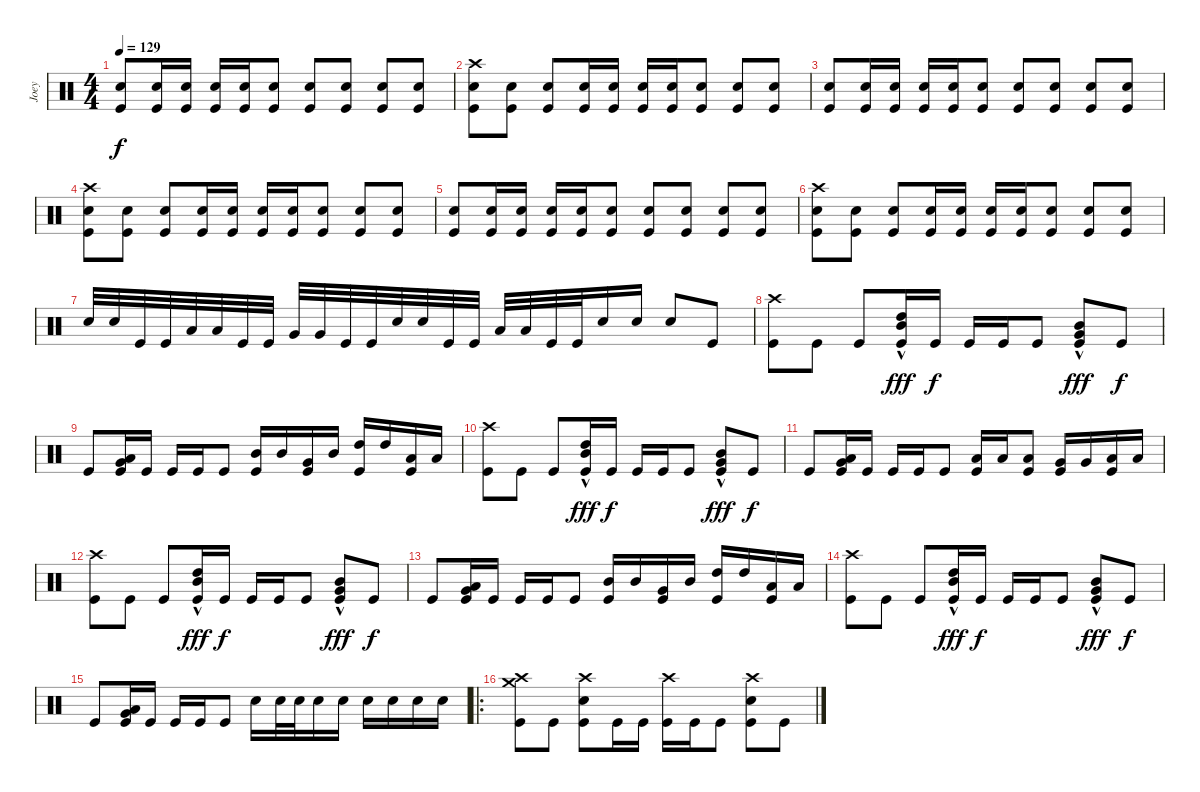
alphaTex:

\track ("Joey" "Joey") {instrument percussion}
\staff {score}
\articulation defaults
\ts (4 4)
\tempo 129
\clef neutral
\ks c
("Snare (hit) 2" "Kick (hit)").8{dy f} ("Snare (hit) 2" "Kick (hit)").16 ("Snare (hit) 2" "Kick (hit)").16 ("Snare (hit) 2" "Kick (hit)").16 ("Snare (hit) 2" "Kick (hit)").16 ("Snare (hit) 2" "Kick (hit)").8 ("Snare (hit) 2" "Kick (hit)").8 ("Snare (hit) 2" "Kick (hit)").8 ("Snare (hit) 2" "Kick (hit)").8 ("Snare (hit) 2" "Kick (hit)").8 |
("Snare (hit) 2" "Kick (hit)" "Crash high (hit)").8 ("Snare (hit) 2" "Kick (hit)").8 ("Snare (hit) 2" "Kick (hit)").8 ("Snare (hit) 2" "Kick (hit)").16 ("Snare (hit) 2" "Kick (hit)").16 ("Snare (hit) 2" "Kick (hit)").16 ("Snare (hit) 2" "Kick (hit)").16 ("Snare (hit) 2" "Kick (hit)").8 ("Snare (hit) 2" "Kick (hit)").8 ("Snare (hit) 2" "Kick (hit)").8 |
("Snare (hit) 2" "Kick (hit)").8 ("Snare (hit) 2" "Kick (hit)").16 ("Snare (hit) 2" "Kick (hit)").16 ("Snare (hit) 2" "Kick (hit)").16 ("Snare (hit) 2" "Kick (hit)").16 ("Snare (hit) 2" "Kick (hit)").8 ("Snare (hit) 2" "Kick (hit)").8 ("Snare (hit) 2" "Kick (hit)").8 ("Snare (hit) 2" "Kick (hit)").8 ("Snare (hit) 2" "Kick (hit)").8 |
("Snare (hit) 2" "Kick (hit)" "Crash high (hit)").8 ("Snare (hit) 2" "Kick (hit)").8 ("Snare (hit) 2" "Kick (hit)").8 ("Snare (hit) 2" "Kick (hit)").16 ("Snare (hit) 2" "Kick (hit)").16 ("Snare (hit) 2" "Kick (hit)").16 ("Snare (hit) 2" "Kick (hit)").16 ("Snare (hit) 2" "Kick (hit)").8 ("Snare (hit) 2" "Kick (hit)").8 ("Snare (hit) 2" "Kick (hit)").8 |
("Snare (hit) 2" "Kick (hit)").8 ("Snare (hit) 2" "Kick (hit)").16 ("Snare (hit) 2" "Kick (hit)").16 ("Snare (hit) 2" "Kick (hit)").16 ("Snare (hit) 2" "Kick (hit)").16 ("Snare (hit) 2" "Kick (hit)").8 ("Snare (hit) 2" "Kick (hit)").8 ("Snare (hit) 2" "Kick (hit)").8 ("Snare (hit) 2" "Kick (hit)").8 ("Snare (hit) 2" "Kick (hit)").8 |
("Snare (hit) 2" "Kick (hit)" "Crash high (hit)").8 ("Snare (hit) 2" "Kick (hit)").8 ("Snare (hit) 2" "Kick (hit)").8 ("Snare (hit) 2" "Kick (hit)").16 ("Snare (hit) 2" "Kick (hit)").16 ("Snare (hit) 2" "Kick (hit)").16 ("Snare (hit) 2" "Kick (hit)").16 ("Snare (hit) 2" "Kick (hit)").8 ("Snare (hit) 2" "Kick (hit)").8 ("Snare (hit) 2" "Kick (hit)").8 |
"Snare (hit) 2".32 "Snare (hit) 2".32 "Kick (hit)".32 "Kick (hit)".32 "Low Floor Tom (hit)".32 "Low Floor Tom (hit)".32 "Kick (hit)".32 "Kick (hit)".32 "Very Low Tom (hit)".32 "Very Low Tom (hit)".32 "Kick (hit)".32 "Kick (hit)".32 "Snare (hit) 2".32 "Snare (hit) 2".32 "Kick (hit)".32 "Kick (hit)".32 "Low Floor Tom (hit)".32 "Low Floor Tom (hit)".32 "Kick (hit)".32 "Kick (hit)".32 "Snare (hit) 2".16 "Snare (hit) 2".16 "Snare (hit) 2".8 "Kick (hit)".8 |
("Crash high (hit)" "Kick (hit)").8 "Kick (hit)".8 "Kick (hit)".8 ("Kick (hit)" "High Tom (hit)"{hac} "Mid Tom (hit)"{hac}).16{dy fff} "Kick (hit)".16{dy f} "Kick (hit)".16 "Kick (hit)".16 "Kick (hit)".8 ("Kick (hit)" "Very Low Tom (hit)"{hac} "Mid Tom (hit)"{hac}).8{dy fff} "Kick (hit)".8{dy f} |
"Kick (hit)".8 ("Kick (hit)" "Low Floor Tom (hit)" "Very Low Tom (hit)").16 "Kick (hit)".16 "Kick (hit)".16 "Kick (hit)".16 "Kick (hit)".8 ("Kick (hit)" "Mid Tom (hit)").16 "Mid Tom (hit)".16 ("Kick (hit)" "Very Low Tom (hit)").16 "Mid Tom (hit)".16 ("Kick (hit)" "High Tom (hit)").16 "High Tom (hit)".16 ("Kick (hit)" "Low Floor Tom (hit)").16 "Low Floor Tom (hit)".16 |
("Crash high (hit)" "Kick (hit)").8 "Kick (hit)".8 "Kick (hit)".8 ("Kick (hit)" "High Tom (hit)"{hac} "Mid Tom (hit)"{hac}).16{dy fff} "Kick (hit)".16{dy f} "Kick (hit)".16 "Kick (hit)".16 "Kick (hit)".8 ("Kick (hit)" "Very Low Tom (hit)"{hac} "Mid Tom (hit)"{hac}).8{dy fff} "Kick (hit)".8{dy f} |
"Kick (hit)".8 ("Kick (hit)" "Low Floor Tom (hit)" "Very Low Tom (hit)").16 "Kick (hit)".16 "Kick (hit)".16 "Kick (hit)".16 "Kick (hit)".8 ("Kick (hit)" "Low Tom (hit)").16 "Low Tom (hit)".16 ("Kick (hit)" "Low Tom (hit)").8 ("Kick (hit)" "Very Low Tom (hit)").16 "Very Low Tom (hit)".16 ("Kick (hit)" "Low Floor Tom (hit)").16 "Low Floor Tom (hit)".16 |
("Crash high (hit)" "Kick (hit)").8 "Kick (hit)".8 "Kick (hit)".8 ("Kick (hit)" "High Tom (hit)"{hac} "Mid Tom (hit)"{hac}).16{dy fff} "Kick (hit)".16{dy f} "Kick (hit)".16 "Kick (hit)".16 "Kick (hit)".8 ("Kick (hit)" "Very Low Tom (hit)"{hac} "Mid Tom (hit)"{hac}).8{dy fff} "Kick (hit)".8{dy f} |
"Kick (hit)".8 ("Kick (hit)" "Low Floor Tom (hit)" "Very Low Tom (hit)").16 "Kick (hit)".16 "Kick (hit)".16 "Kick (hit)".16 "Kick (hit)".8 ("Kick (hit)" "Mid Tom (hit)").16 "Mid Tom (hit)".16 ("Kick (hit)" "Very Low Tom (hit)").16 "Mid Tom (hit)".16 ("Kick (hit)" "High Tom (hit)").16 "High Tom (hit)".16 ("Kick (hit)" "Low Floor Tom (hit)").16 "Low Floor Tom (hit)".16 |
("Crash high (hit)" "Kick (hit)").8 "Kick (hit)".8 "Kick (hit)".8 ("Kick (hit)" "High Tom (hit)"{hac} "Mid Tom (hit)"{hac}).16{dy fff} "Kick (hit)".16{dy f} "Kick (hit)".16 "Kick (hit)".16 "Kick (hit)".8 ("Kick (hit)" "Very Low Tom (hit)"{hac} "Mid Tom (hit)"{hac}).8{dy fff} "Kick (hit)".8{dy f} |
"Kick (hit)".8 ("Kick (hit)" "Low Floor Tom (hit)" "Very Low Tom (hit)").16 "Kick (hit)".16 "Kick (hit)".16 "Kick (hit)".16 "Kick (hit)".8 "Snare (hit) 2".16 "Snare (hit) 2".32 "Snare (hit) 2".32 "Snare (hit) 2".16 "Snare (hit) 2".16 "Snare (hit) 2".16 "Snare (hit) 2".16 "Snare (hit) 2".16 "Snare (hit) 2".16 |
\ro
("Crash high (hit)" "Kick (hit)" "Crash medium (hit)").8 "Kick (hit)".8 ("Kick (hit)" "Crash high (hit)" "Snare (hit) 2").8 "Kick (hit)".16 "Kick (hit)".16 ("Kick (hit)" "Crash high (hit)").16 "Kick (hit)".16 "Kick (hit)".8 ("Kick (hit)" "Crash high (hit)" "Snare (hit) 2").8 "Kick (hit)".8
